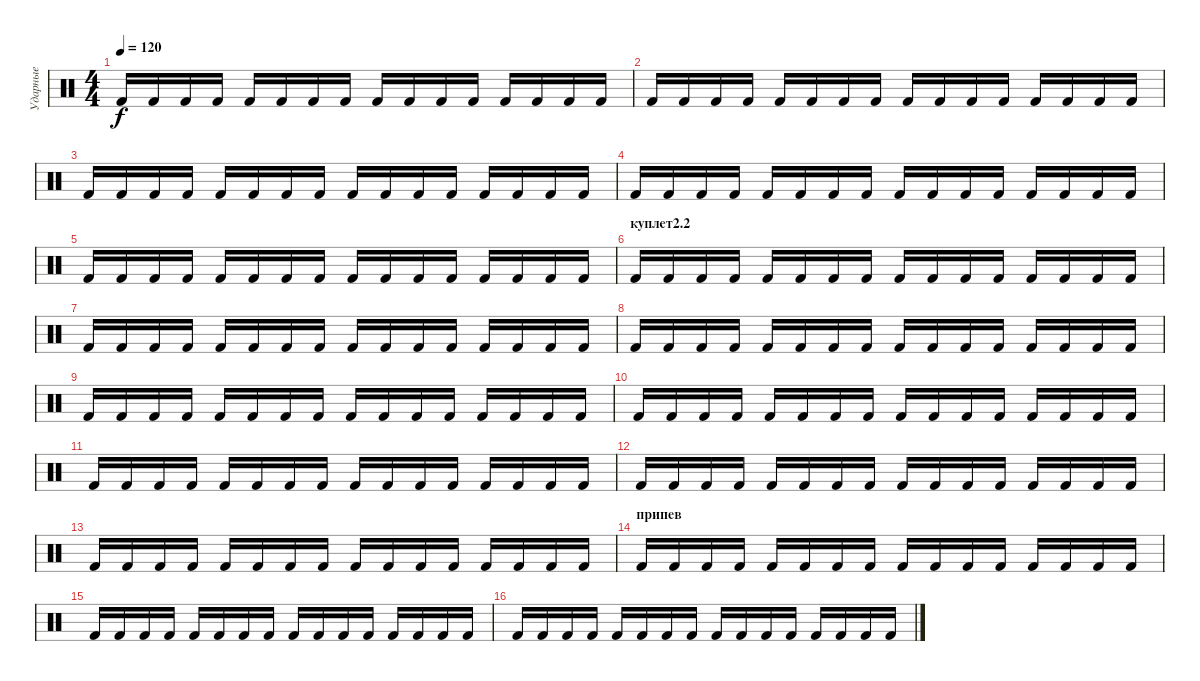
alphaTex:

\track ("Ударные" "Ударные") {instrument percussion}
\staff {score}
\articulation defaults
\ts (4 4)
\tempo 120
\clef neutral
\ks c "Kick (hit) 2".16{dy f} "Kick (hit) 2".16 "Kick (hit) 2".16 "Kick (hit) 2".16 "Kick (hit) 2".16 "Kick (hit) 2".16 "Kick (hit) 2".16 "Kick (hit) 2".16 "Kick (hit) 2".16 "Kick (hit) 2".16 "Kick (hit) 2".16 "Kick (hit) 2".16 "Kick (hit) 2".16 "Kick (hit) 2".16 "Kick (hit) 2".16 "Kick (hit) 2".16
|
"Kick (hit) 2".16 "Kick (hit) 2".16 "Kick (hit) 2".16 "Kick (hit) 2".16 "Kick (hit) 2".16 "Kick (hit) 2".16 "Kick (hit) 2".16 "Kick (hit) 2".16 "Kick (hit) 2".16 "Kick (hit) 2".16 "Kick (hit) 2".16 "Kick (hit) 2".16 "Kick (hit) 2".16 "Kick (hit) 2".16 "Kick (hit) 2".16 "Kick (hit) 2".16 |
"Kick (hit) 2".16 "Kick (hit) 2".16 "Kick (hit) 2".16 "Kick (hit) 2".16 "Kick (hit) 2".16 "Kick (hit) 2".16 "Kick (hit) 2".16 "Kick (hit) 2".16 "Kick (hit) 2".16 "Kick (hit) 2".16 "Kick (hit) 2".16 "Kick (hit) 2".16 "Kick (hit) 2".16 "Kick (hit) 2".16 "Kick (hit) 2".16 "Kick (hit) 2".16 |
"Kick (hit) 2".16 "Kick (hit) 2".16 "Kick (hit) 2".16 "Kick (hit) 2".16 "Kick (hit) 2".16 "Kick (hit) 2".16 "Kick (hit) 2".16 "Kick (hit) 2".16 "Kick (hit) 2".16 "Kick (hit) 2".16 "Kick (hit) 2".16 "Kick (hit) 2".16 "Kick (hit) 2".16 "Kick (hit) 2".16 "Kick (hit) 2".16 "Kick (hit) 2".16 |
"Kick (hit) 2".16 "Kick (hit) 2".16 "Kick (hit) 2".16 "Kick (hit) 2".16 "Kick (hit) 2".16 "Kick (hit) 2".16 "Kick (hit) 2".16 "Kick (hit) 2".16 "Kick (hit) 2".16 "Kick (hit) 2".16 "Kick (hit) 2".16 "Kick (hit) 2".16 "Kick (hit) 2".16 "Kick (hit) 2".16 "Kick (hit) 2".16 "Kick (hit) 2".16 |
\section ("" "куплет2.2")
"Kick (hit) 2".16 "Kick (hit) 2".16 "Kick (hit) 2".16 "Kick (hit) 2".16 "Kick (hit) 2".16 "Kick (hit) 2".16 "Kick (hit) 2".16 "Kick (hit) 2".16 "Kick (hit) 2".16 "Kick (hit) 2".16 "Kick (hit) 2".16 "Kick (hit) 2".16 "Kick (hit) 2".16 "Kick (hit) 2".16 "Kick (hit) 2".16 "Kick (hit) 2".16 |
"Kick (hit) 2".16 "Kick (hit) 2".16 "Kick (hit) 2".16 "Kick (hit) 2".16 "Kick (hit) 2".16 "Kick (hit) 2".16 "Kick (hit) 2".16 "Kick (hit) 2".16 "Kick (hit) 2".16 "Kick (hit) 2".16 "Kick (hit) 2".16 "Kick (hit) 2".16 "Kick (hit) 2".16 "Kick (hit) 2".16 "Kick (hit) 2".16 "Kick (hit) 2".16 |
"Kick (hit) 2".16 "Kick (hit) 2".16 "Kick (hit) 2".16 "Kick (hit) 2".16 "Kick (hit) 2".16 "Kick (hit) 2".16 "Kick (hit) 2".16 "Kick (hit) 2".16 "Kick (hit) 2".16 "Kick (hit) 2".16 "Kick (hit) 2".16 "Kick (hit) 2".16 "Kick (hit) 2".16 "Kick (hit) 2".16 "Kick (hit) 2".16 "Kick (hit) 2".16 |
"Kick (hit) 2".16 "Kick (hit) 2".16 "Kick (hit) 2".16 "Kick (hit) 2".16 "Kick (hit) 2".16 "Kick (hit) 2".16 "Kick (hit) 2".16 "Kick (hit) 2".16 "Kick (hit) 2".16 "Kick (hit) 2".16 "Kick (hit) 2".16 "Kick (hit) 2".16 "Kick (hit) 2".16 "Kick (hit) 2".16 "Kick (hit) 2".16 "Kick (hit) 2".16 |
"Kick (hit) 2".16 "Kick (hit) 2".16 "Kick (hit) 2".16 "Kick (hit) 2".16 "Kick (hit) 2".16 "Kick (hit) 2".16 "Kick (hit) 2".16 "Kick (hit) 2".16 "Kick (hit) 2".16 "Kick (hit) 2".16 "Kick (hit) 2".16 "Kick (hit) 2".16 "Kick (hit) 2".16 "Kick (hit) 2".16 "Kick (hit) 2".16 "Kick (hit) 2".16 |
"Kick (hit) 2".16 "Kick (hit) 2".16 "Kick (hit) 2".16 "Kick (hit) 2".16 "Kick (hit) 2".16 "Kick (hit) 2".16 "Kick (hit) 2".16 "Kick (hit) 2".16 "Kick (hit) 2".16 "Kick (hit) 2".16 "Kick (hit) 2".16 "Kick (hit) 2".16 "Kick (hit) 2".16 "Kick (hit) 2".16 "Kick (hit) 2".16 "Kick (hit) 2".16 |
"Kick (hit) 2".16 "Kick (hit) 2".16 "Kick (hit) 2".16 "Kick (hit) 2".16 "Kick (hit) 2".16 "Kick (hit) 2".16 "Kick (hit) 2".16 "Kick (hit) 2".16 "Kick (hit) 2".16 "Kick (hit) 2".16 "Kick (hit) 2".16 "Kick (hit) 2".16 "Kick (hit) 2".16 "Kick (hit) 2".16 "Kick (hit) 2".16 "Kick (hit) 2".16 |
"Kick (hit) 2".16 "Kick (hit) 2".16 "Kick (hit) 2".16 "Kick (hit) 2".16 "Kick (hit) 2".16 "Kick (hit) 2".16 "Kick (hit) 2".16 "Kick (hit) 2".16 "Kick (hit) 2".16 "Kick (hit) 2".16 "Kick (hit) 2".16 "Kick (hit) 2".16 "Kick (hit) 2".16 "Kick (hit) 2".16 "Kick (hit) 2".16 "Kick (hit) 2".16 |
\section ("" "припев")
"Kick (hit) 2".16 "Kick (hit) 2".16 "Kick (hit) 2".16 "Kick (hit) 2".16 "Kick (hit) 2".16 "Kick (hit) 2".16 "Kick (hit) 2".16 "Kick (hit) 2".16 "Kick (hit) 2".16 "Kick (hit) 2".16 "Kick (hit) 2".16 "Kick (hit) 2".16 "Kick (hit) 2".16 "Kick (hit) 2".16 "Kick (hit) 2".16 "Kick (hit) 2".16 |
"Kick (hit) 2".16 "Kick (hit) 2".16 "Kick (hit) 2".16 "Kick (hit) 2".16 "Kick (hit) 2".16 "Kick (hit) 2".16 "Kick (hit) 2".16 "Kick (hit) 2".16 "Kick (hit) 2".16 "Kick (hit) 2".16 "Kick (hit) 2".16 "Kick (hit) 2".16 "Kick (hit) 2".16 "Kick (hit) 2".16 "Kick (hit) 2".16 "Kick (hit) 2".16 |
"Kick (hit) 2".16 "Kick (hit) 2".16 "Kick (hit) 2".16 "Kick (hit) 2".16 "Kick (hit) 2".16 "Kick (hit) 2".16 "Kick (hit) 2".16 "Kick (hit) 2".16 "Kick (hit) 2".16 "Kick (hit) 2".16 "Kick (hit) 2".16 "Kick (hit) 2".16 "Kick (hit) 2".16 "Kick (hit) 2".16 "Kick (hit) 2".16 "Kick (hit) 2".16
